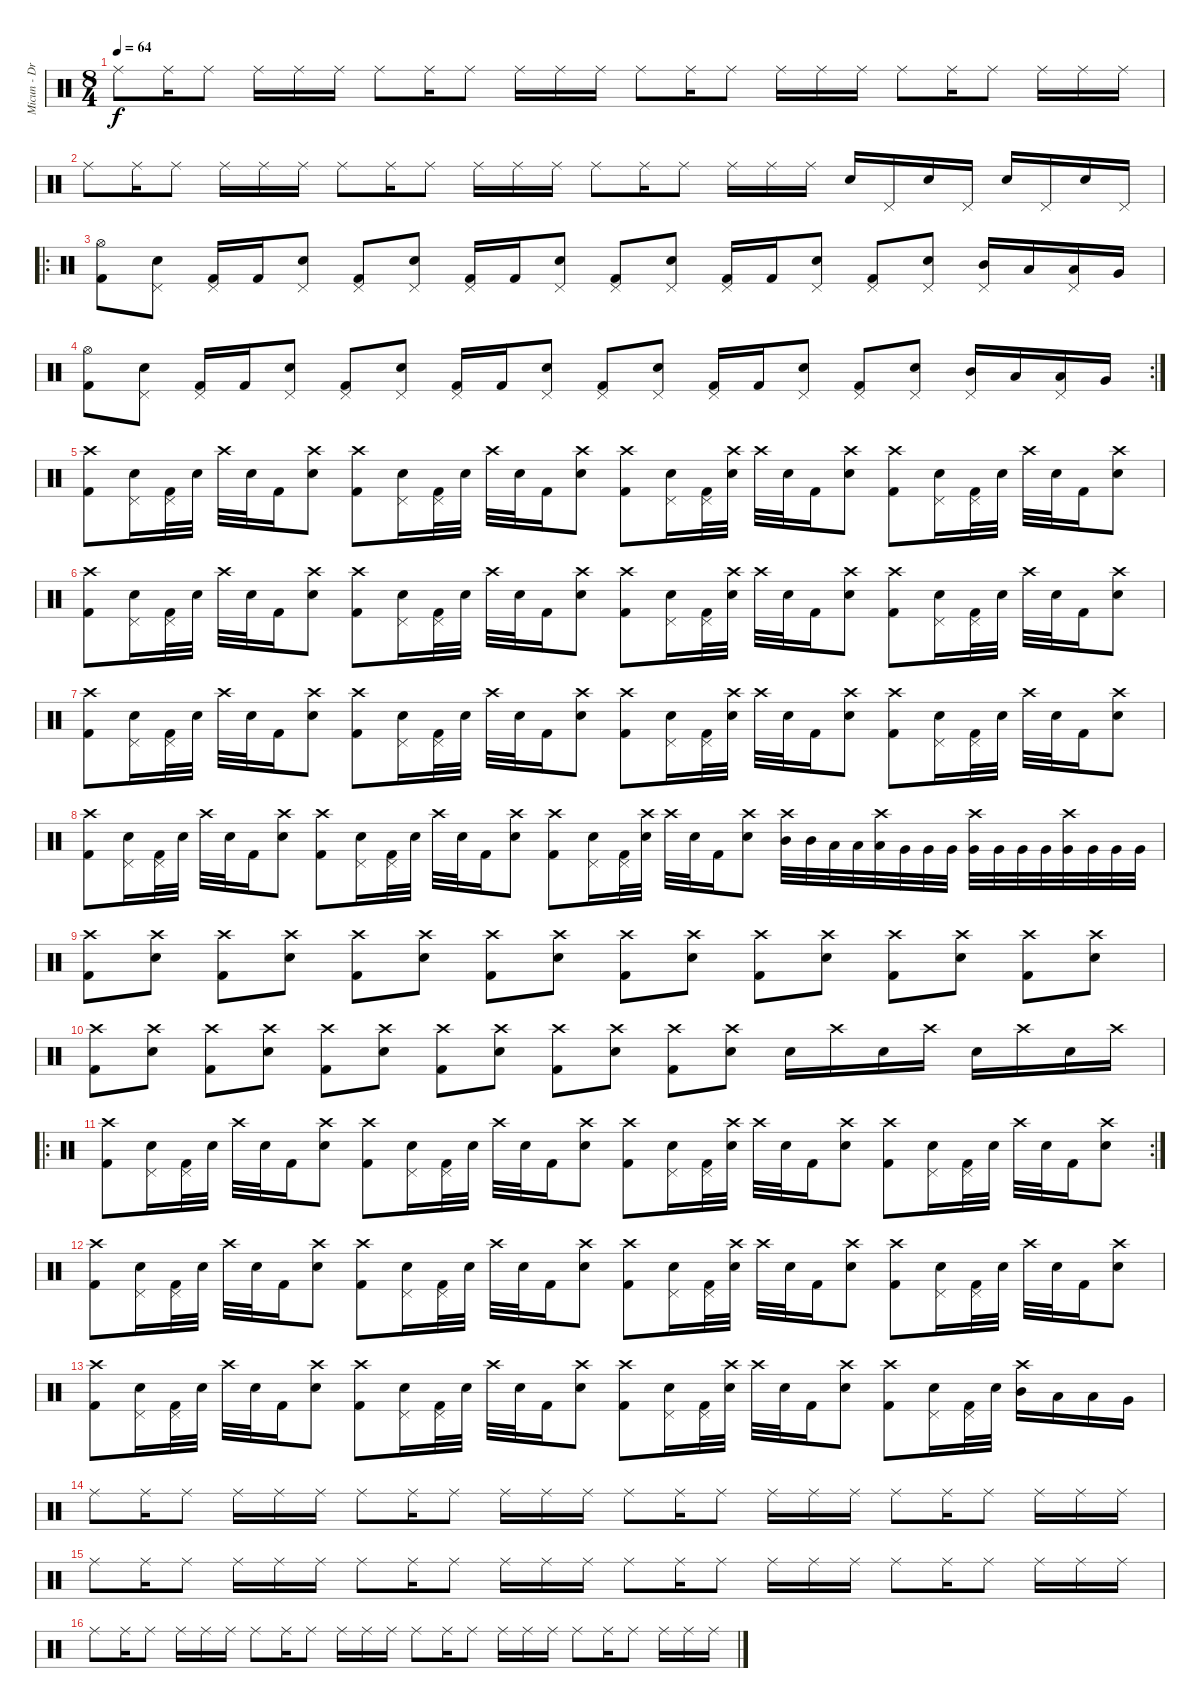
\track ("Micun - Drums" "Micun - Dr") {instrument percussion}
\staff {score}
\articulation defaults
\ts (8 4)
\tempo 64
\clef neutral
\ks c "Ride (middle)".8{dy f} "Ride (middle)".16 "Ride (middle)".8 "Ride (middle)".16 "Ride (middle)".16 "Ride (middle)".16 "Ride (middle)".8 "Ride (middle)".16 "Ride (middle)".8 "Ride (middle)".16 "Ride (middle)".16 "Ride (middle)".16 "Ride (middle)".8 "Ride (middle)".16 "Ride (middle)".8 "Ride (middle)".16 "Ride (middle)".16 "Ride (middle)".16 "Ride (middle)".8 "Ride (middle)".16 "Ride (middle)".8 "Ride (middle)".16 "Ride (middle)".16 "Ride (middle)".16
|
"Ride (middle)".8 "Ride (middle)".16 "Ride (middle)".8 "Ride (middle)".16 "Ride (middle)".16 "Ride (middle)".16 "Ride (middle)".8 "Ride (middle)".16 "Ride (middle)".8 "Ride (middle)".16 "Ride (middle)".16 "Ride (middle)".16 "Ride (middle)".8 "Ride (middle)".16 "Ride (middle)".8 "Ride (middle)".16 "Ride (middle)".16 "Ride (middle)".16 "Snare (hit) 2".16 "Pedal Hi-Hat (hit)".16 "Snare (hit) 2".16 "Pedal Hi-Hat (hit)".16 "Snare (hit) 2".16 "Pedal Hi-Hat (hit)".16 "Snare (hit) 2".16 "Pedal Hi-Hat (hit)".16 |
\ro
("Hi-Hat (open)" "Kick (hit) 2").8 ("Pedal Hi-Hat (hit)" "Snare (hit) 2").8 ("Pedal Hi-Hat (hit)" "Kick (hit) 2").16 "Kick (hit) 2".16 ("Pedal Hi-Hat (hit)" "Snare (hit) 2").8 ("Pedal Hi-Hat (hit)" "Kick (hit) 2").8 ("Pedal Hi-Hat (hit)" "Snare (hit) 2").8 ("Pedal Hi-Hat (hit)" "Kick (hit) 2").16 "Kick (hit) 2".16 ("Pedal Hi-Hat (hit)" "Snare (hit) 2").8 ("Pedal Hi-Hat (hit)" "Kick (hit) 2").8 ("Pedal Hi-Hat (hit)" "Snare (hit) 2").8 ("Pedal Hi-Hat (hit)" "Kick (hit) 2").16 "Kick (hit) 2".16 ("Pedal Hi-Hat (hit)" "Snare (hit) 2").8 ("Pedal Hi-Hat (hit)" "Kick (hit) 2").8 ("Pedal Hi-Hat (hit)" "Snare (hit) 2").8 ("Pedal Hi-Hat (hit)" "Mid Tom (hit)").16 "Low Tom (hit)".16 ("Pedal Hi-Hat (hit)" "Low Tom (hit)").16 "Very Low Tom (hit)".16 |
\rc 2
("Hi-Hat (open)" "Kick (hit) 2").8 ("Pedal Hi-Hat (hit)" "Snare (hit) 2").8 ("Pedal Hi-Hat (hit)" "Kick (hit) 2").16 "Kick (hit) 2".16 ("Pedal Hi-Hat (hit)" "Snare (hit) 2").8 ("Pedal Hi-Hat (hit)" "Kick (hit) 2").8 ("Pedal Hi-Hat (hit)" "Snare (hit) 2").8 ("Pedal Hi-Hat (hit)" "Kick (hit) 2").16 "Kick (hit) 2".16 ("Pedal Hi-Hat (hit)" "Snare (hit) 2").8 ("Pedal Hi-Hat (hit)" "Kick (hit) 2").8 ("Pedal Hi-Hat (hit)" "Snare (hit) 2").8 ("Pedal Hi-Hat (hit)" "Kick (hit) 2").16 "Kick (hit) 2".16 ("Pedal Hi-Hat (hit)" "Snare (hit) 2").8 ("Pedal Hi-Hat (hit)" "Kick (hit) 2").8 ("Pedal Hi-Hat (hit)" "Snare (hit) 2").8 ("Pedal Hi-Hat (hit)" "Mid Tom (hit)").16 "Low Tom (hit)".16 ("Pedal Hi-Hat (hit)" "Low Tom (hit)").16 "Very Low Tom (hit)".16 |
("Crash high (hit)" "Kick (hit) 2").8 ("Pedal Hi-Hat (hit)" "Snare (hit) 2").16 ("Pedal Hi-Hat (hit)" "Kick (hit) 2").32 "Snare (hit) 2".32 "Crash high (hit)".32 "Snare (hit) 2".32 "Kick (hit) 2".16 ("Crash high (hit)" "Snare (hit) 2").8 ("Crash high (hit)" "Kick (hit) 2").8 ("Pedal Hi-Hat (hit)" "Snare (hit) 2").16 ("Pedal Hi-Hat (hit)" "Kick (hit) 2").32 "Snare (hit) 2".32 "Crash high (hit)".32 "Snare (hit) 2".32 "Kick (hit) 2".16 ("Crash high (hit)" "Snare (hit) 2").8 ("Crash high (hit)" "Kick (hit) 2").8 ("Pedal Hi-Hat (hit)" "Snare (hit) 2").16 ("Pedal Hi-Hat (hit)" "Kick (hit) 2").32 ("Crash high (hit)" "Snare (hit) 2").32 "Crash high (hit)".32 "Snare (hit) 2".32 "Kick (hit) 2".16 ("Crash high (hit)" "Snare (hit) 2").8 ("Crash high (hit)" "Kick (hit) 2").8 ("Pedal Hi-Hat (hit)" "Snare (hit) 2").16 ("Pedal Hi-Hat (hit)" "Kick (hit) 2").32 "Snare (hit) 2".32 "Crash high (hit)".32 "Snare (hit) 2".32 "Kick (hit) 2".16 ("Crash high (hit)" "Snare (hit) 2").8 |
("Crash high (hit)" "Kick (hit) 2").8 ("Pedal Hi-Hat (hit)" "Snare (hit) 2").16 ("Pedal Hi-Hat (hit)" "Kick (hit) 2").32 "Snare (hit) 2".32 "Crash high (hit)".32 "Snare (hit) 2".32 "Kick (hit) 2".16 ("Crash high (hit)" "Snare (hit) 2").8 ("Crash high (hit)" "Kick (hit) 2").8 ("Pedal Hi-Hat (hit)" "Snare (hit) 2").16 ("Pedal Hi-Hat (hit)" "Kick (hit) 2").32 "Snare (hit) 2".32 "Crash high (hit)".32 "Snare (hit) 2".32 "Kick (hit) 2".16 ("Crash high (hit)" "Snare (hit) 2").8 ("Crash high (hit)" "Kick (hit) 2").8 ("Pedal Hi-Hat (hit)" "Snare (hit) 2").16 ("Pedal Hi-Hat (hit)" "Kick (hit) 2").32 ("Crash high (hit)" "Snare (hit) 2").32 "Crash high (hit)".32 "Snare (hit) 2".32 "Kick (hit) 2".16 ("Crash high (hit)" "Snare (hit) 2").8 ("Crash high (hit)" "Kick (hit) 2").8 ("Pedal Hi-Hat (hit)" "Snare (hit) 2").16 ("Pedal Hi-Hat (hit)" "Kick (hit) 2").32 "Snare (hit) 2".32 "Crash high (hit)".32 "Snare (hit) 2".32 "Kick (hit) 2".16 ("Crash high (hit)" "Snare (hit) 2").8 |
("Crash high (hit)" "Kick (hit) 2").8 ("Pedal Hi-Hat (hit)" "Snare (hit) 2").16 ("Pedal Hi-Hat (hit)" "Kick (hit) 2").32 "Snare (hit) 2".32 "Crash high (hit)".32 "Snare (hit) 2".32 "Kick (hit) 2".16 ("Crash high (hit)" "Snare (hit) 2").8 ("Crash high (hit)" "Kick (hit) 2").8 ("Pedal Hi-Hat (hit)" "Snare (hit) 2").16 ("Pedal Hi-Hat (hit)" "Kick (hit) 2").32 "Snare (hit) 2".32 "Crash high (hit)".32 "Snare (hit) 2".32 "Kick (hit) 2".16 ("Crash high (hit)" "Snare (hit) 2").8 ("Crash high (hit)" "Kick (hit) 2").8 ("Pedal Hi-Hat (hit)" "Snare (hit) 2").16 ("Pedal Hi-Hat (hit)" "Kick (hit) 2").32 ("Crash high (hit)" "Snare (hit) 2").32 "Crash high (hit)".32 "Snare (hit) 2".32 "Kick (hit) 2".16 ("Crash high (hit)" "Snare (hit) 2").8 ("Crash high (hit)" "Kick (hit) 2").8 ("Pedal Hi-Hat (hit)" "Snare (hit) 2").16 ("Pedal Hi-Hat (hit)" "Kick (hit) 2").32 "Snare (hit) 2".32 "Crash high (hit)".32 "Snare (hit) 2".32 "Kick (hit) 2".16 ("Crash high (hit)" "Snare (hit) 2").8 |
("Crash high (hit)" "Kick (hit) 2").8 ("Pedal Hi-Hat (hit)" "Snare (hit) 2").16 ("Pedal Hi-Hat (hit)" "Kick (hit) 2").32 "Snare (hit) 2".32 "Crash high (hit)".32 "Snare (hit) 2".32 "Kick (hit) 2".16 ("Crash high (hit)" "Snare (hit) 2").8 ("Crash high (hit)" "Kick (hit) 2").8 ("Pedal Hi-Hat (hit)" "Snare (hit) 2").16 ("Pedal Hi-Hat (hit)" "Kick (hit) 2").32 "Snare (hit) 2".32 "Crash high (hit)".32 "Snare (hit) 2".32 "Kick (hit) 2".16 ("Crash high (hit)" "Snare (hit) 2").8 ("Crash high (hit)" "Kick (hit) 2").8 ("Pedal Hi-Hat (hit)" "Snare (hit) 2").16 ("Pedal Hi-Hat (hit)" "Kick (hit) 2").32 ("Crash high (hit)" "Snare (hit) 2").32 "Crash high (hit)".32 "Snare (hit) 2".32 "Kick (hit) 2".16 ("Crash high (hit)" "Snare (hit) 2").8 ("Crash high (hit)" "Mid Tom (hit)").32 "Mid Tom (hit)".32 "Low Tom (hit)".32 "Low Tom (hit)".32 ("Crash high (hit)" "Low Tom (hit)").32 "Very Low Tom (hit)".32 "Very Low Tom (hit)".32 "Very Low Tom (hit)".32 ("Crash high (hit)" "Very Low Tom (hit)").32 "Very Low Tom (hit)".32 "Very Low Tom (hit)".32 "Very Low Tom (hit)".32 ("Crash high (hit)" "Very Low Tom (hit)").32 "Very Low Tom (hit)".32 "Very Low Tom (hit)".32 "Very Low Tom (hit)".32 |
("Crash high (hit)" "Kick (hit) 2").8 ("Crash high (hit)" "Snare (hit) 2").8 ("Crash high (hit)" "Kick (hit) 2").8 ("Crash high (hit)" "Snare (hit) 2").8 ("Crash high (hit)" "Kick (hit) 2").8 ("Crash high (hit)" "Snare (hit) 2").8 ("Crash high (hit)" "Kick (hit) 2").8 ("Crash high (hit)" "Snare (hit) 2").8 ("Crash high (hit)" "Kick (hit) 2").8 ("Crash high (hit)" "Snare (hit) 2").8 ("Crash high (hit)" "Kick (hit) 2").8 ("Crash high (hit)" "Snare (hit) 2").8 ("Crash high (hit)" "Kick (hit) 2").8 ("Crash high (hit)" "Snare (hit) 2").8 ("Crash high (hit)" "Kick (hit) 2").8 ("Crash high (hit)" "Snare (hit) 2").8 |
("Crash high (hit)" "Kick (hit) 2").8 ("Crash high (hit)" "Snare (hit) 2").8 ("Crash high (hit)" "Kick (hit) 2").8 ("Crash high (hit)" "Snare (hit) 2").8 ("Crash high (hit)" "Kick (hit) 2").8 ("Crash high (hit)" "Snare (hit) 2").8 ("Crash high (hit)" "Kick (hit) 2").8 ("Crash high (hit)" "Snare (hit) 2").8 ("Crash high (hit)" "Kick (hit) 2").8 ("Crash high (hit)" "Snare (hit) 2").8 ("Crash high (hit)" "Kick (hit) 2").8 ("Crash high (hit)" "Snare (hit) 2").8 "Snare (hit) 2".16 "Crash high (hit)".16 "Snare (hit) 2".16 "Crash high (hit)".16 "Snare (hit) 2".16 "Crash high (hit)".16 "Snare (hit) 2".16 "Crash high (hit)".16 |
\ro
\rc 2
("Crash high (hit)" "Kick (hit) 2").8 ("Pedal Hi-Hat (hit)" "Snare (hit) 2").16 ("Pedal Hi-Hat (hit)" "Kick (hit) 2").32 "Snare (hit) 2".32 "Crash high (hit)".32 "Snare (hit) 2".32 "Kick (hit) 2".16 ("Crash high (hit)" "Snare (hit) 2").8 ("Crash high (hit)" "Kick (hit) 2").8 ("Pedal Hi-Hat (hit)" "Snare (hit) 2").16 ("Pedal Hi-Hat (hit)" "Kick (hit) 2").32 "Snare (hit) 2".32 "Crash high (hit)".32 "Snare (hit) 2".32 "Kick (hit) 2".16 ("Crash high (hit)" "Snare (hit) 2").8 ("Crash high (hit)" "Kick (hit) 2").8 ("Pedal Hi-Hat (hit)" "Snare (hit) 2").16 ("Pedal Hi-Hat (hit)" "Kick (hit) 2").32 ("Crash high (hit)" "Snare (hit) 2").32 "Crash high (hit)".32 "Snare (hit) 2".32 "Kick (hit) 2".16 ("Crash high (hit)" "Snare (hit) 2").8 ("Crash high (hit)" "Kick (hit) 2").8 ("Pedal Hi-Hat (hit)" "Snare (hit) 2").16 ("Pedal Hi-Hat (hit)" "Kick (hit) 2").32 "Snare (hit) 2".32 "Crash high (hit)".32 "Snare (hit) 2".32 "Kick (hit) 2".16 ("Crash high (hit)" "Snare (hit) 2").8 |
("Crash high (hit)" "Kick (hit) 2").8 ("Pedal Hi-Hat (hit)" "Snare (hit) 2").16 ("Pedal Hi-Hat (hit)" "Kick (hit) 2").32 "Snare (hit) 2".32 "Crash high (hit)".32 "Snare (hit) 2".32 "Kick (hit) 2".16 ("Crash high (hit)" "Snare (hit) 2").8 ("Crash high (hit)" "Kick (hit) 2").8 ("Pedal Hi-Hat (hit)" "Snare (hit) 2").16 ("Pedal Hi-Hat (hit)" "Kick (hit) 2").32 "Snare (hit) 2".32 "Crash high (hit)".32 "Snare (hit) 2".32 "Kick (hit) 2".16 ("Crash high (hit)" "Snare (hit) 2").8 ("Crash high (hit)" "Kick (hit) 2").8 ("Pedal Hi-Hat (hit)" "Snare (hit) 2").16 ("Pedal Hi-Hat (hit)" "Kick (hit) 2").32 ("Crash high (hit)" "Snare (hit) 2").32 "Crash high (hit)".32 "Snare (hit) 2".32 "Kick (hit) 2".16 ("Crash high (hit)" "Snare (hit) 2").8 ("Crash high (hit)" "Kick (hit) 2").8 ("Pedal Hi-Hat (hit)" "Snare (hit) 2").16 ("Pedal Hi-Hat (hit)" "Kick (hit) 2").32 "Snare (hit) 2".32 "Crash high (hit)".32 "Snare (hit) 2".32 "Kick (hit) 2".16 ("Crash high (hit)" "Snare (hit) 2").8 |
("Crash high (hit)" "Kick (hit) 2").8 ("Pedal Hi-Hat (hit)" "Snare (hit) 2").16 ("Pedal Hi-Hat (hit)" "Kick (hit) 2").32 "Snare (hit) 2".32 "Crash high (hit)".32 "Snare (hit) 2".32 "Kick (hit) 2".16 ("Crash high (hit)" "Snare (hit) 2").8 ("Crash high (hit)" "Kick (hit) 2").8 ("Pedal Hi-Hat (hit)" "Snare (hit) 2").16 ("Pedal Hi-Hat (hit)" "Kick (hit) 2").32 "Snare (hit) 2".32 "Crash high (hit)".32 "Snare (hit) 2".32 "Kick (hit) 2".16 ("Crash high (hit)" "Snare (hit) 2").8 ("Crash high (hit)" "Kick (hit) 2").8 ("Pedal Hi-Hat (hit)" "Snare (hit) 2").16 ("Pedal Hi-Hat (hit)" "Kick (hit) 2").32 ("Crash high (hit)" "Snare (hit) 2").32 "Crash high (hit)".32 "Snare (hit) 2".32 "Kick (hit) 2".16 ("Crash high (hit)" "Snare (hit) 2").8 ("Crash high (hit)" "Kick (hit) 2").8 ("Pedal Hi-Hat (hit)" "Snare (hit) 2").16 ("Pedal Hi-Hat (hit)" "Kick (hit) 2").32 "Snare (hit) 2".32 ("Crash high (hit)" "Mid Tom (hit)").16 "Low Tom (hit)".16 "Low Tom (hit)".16 "Very Low Tom (hit)".16 |
"Ride (middle)".8 "Ride (middle)".16 "Ride (middle)".8 "Ride (middle)".16 "Ride (middle)".16 "Ride (middle)".16 "Ride (middle)".8 "Ride (middle)".16 "Ride (middle)".8 "Ride (middle)".16 "Ride (middle)".16 "Ride (middle)".16 "Ride (middle)".8 "Ride (middle)".16 "Ride (middle)".8 "Ride (middle)".16 "Ride (middle)".16 "Ride (middle)".16 "Ride (middle)".8 "Ride (middle)".16 "Ride (middle)".8 "Ride (middle)".16 "Ride (middle)".16 "Ride (middle)".16 |
"Ride (middle)".8 "Ride (middle)".16 "Ride (middle)".8 "Ride (middle)".16 "Ride (middle)".16 "Ride (middle)".16 "Ride (middle)".8 "Ride (middle)".16 "Ride (middle)".8 "Ride (middle)".16 "Ride (middle)".16 "Ride (middle)".16 "Ride (middle)".8 "Ride (middle)".16 "Ride (middle)".8 "Ride (middle)".16 "Ride (middle)".16 "Ride (middle)".16 "Ride (middle)".8 "Ride (middle)".16 "Ride (middle)".8 "Ride (middle)".16 "Ride (middle)".16 "Ride (middle)".16 |
"Ride (middle)".8 "Ride (middle)".16 "Ride (middle)".8 "Ride (middle)".16 "Ride (middle)".16 "Ride (middle)".16 "Ride (middle)".8 "Ride (middle)".16 "Ride (middle)".8 "Ride (middle)".16 "Ride (middle)".16 "Ride (middle)".16 "Ride (middle)".8 "Ride (middle)".16 "Ride (middle)".8 "Ride (middle)".16 "Ride (middle)".16 "Ride (middle)".16 "Ride (middle)".8 "Ride (middle)".16 "Ride (middle)".8 "Ride (middle)".16 "Ride (middle)".16 "Ride (middle)".16
